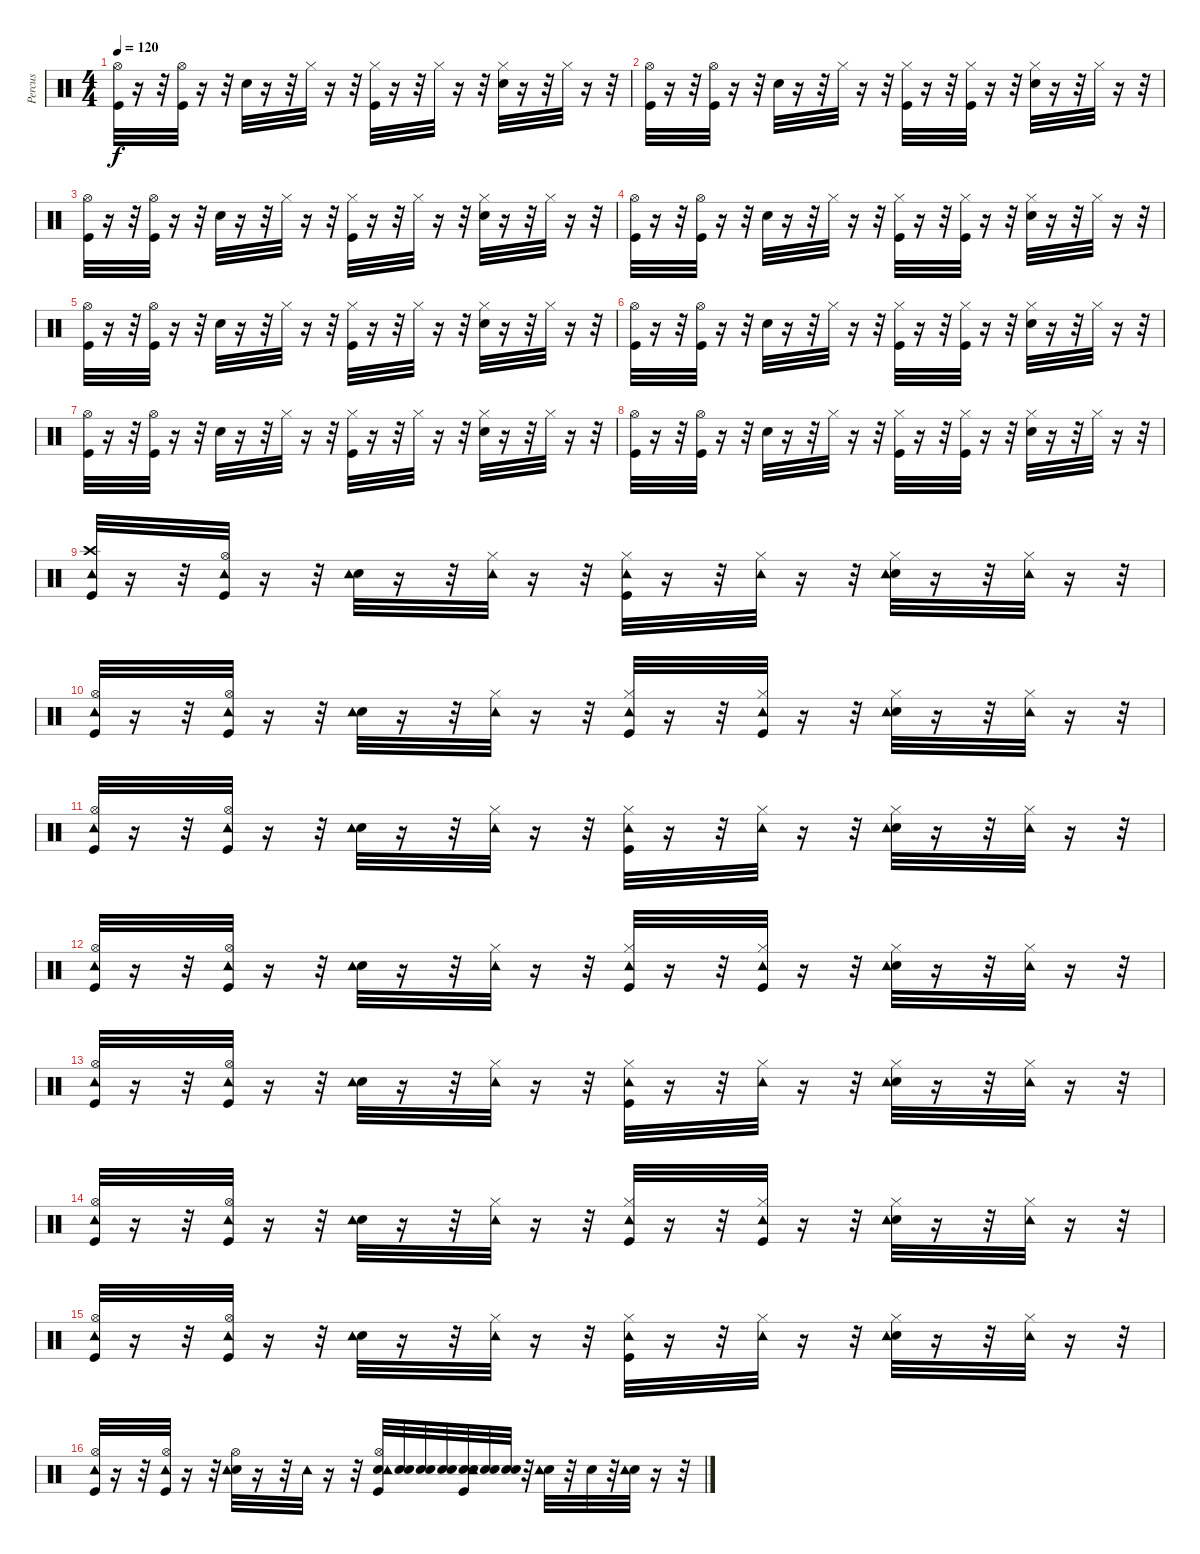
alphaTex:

\track ("Percus" "Percus") {instrument percussion}
\staff {score}
\articulation defaults
\ts (4 4)
\tempo 120
\clef neutral
\ks c
("Kick (hit)" "Hi-Hat (open)").32{dy f} r.16 r.32 ("Kick (hit)" "Hi-Hat (open)").32 r.16 r.32 "Electric Snare (hit)".32 r.16 r.32 "Hi-Hat (closed)".32 r.16 r.32 ("Kick (hit)" "Hi-Hat (closed)").32 r.16 r.32 "Hi-Hat (closed)".32 r.16 r.32 ("Electric Snare (hit)" "Hi-Hat (closed)").32 r.16 r.32 "Hi-Hat (closed)".32 r.16 r.32 |
("Kick (hit)" "Hi-Hat (open)").32 r.16 r.32 ("Kick (hit)" "Hi-Hat (open)").32 r.16 r.32 "Electric Snare (hit)".32 r.16 r.32 "Hi-Hat (closed)".32 r.16 r.32 ("Kick (hit)" "Hi-Hat (closed)").32 r.16 r.32 ("Kick (hit)" "Hi-Hat (closed)").32 r.16 r.32 ("Electric Snare (hit)" "Hi-Hat (closed)").32 r.16 r.32 "Hi-Hat (closed)".32 r.16 r.32 |
("Kick (hit)" "Hi-Hat (open)").32 r.16 r.32 ("Kick (hit)" "Hi-Hat (open)").32 r.16 r.32 "Electric Snare (hit)".32 r.16 r.32 "Hi-Hat (closed)".32 r.16 r.32 ("Kick (hit)" "Hi-Hat (closed)").32 r.16 r.32 "Hi-Hat (closed)".32 r.16 r.32 ("Electric Snare (hit)" "Hi-Hat (closed)").32 r.16 r.32 "Hi-Hat (closed)".32 r.16 r.32 |
("Kick (hit)" "Hi-Hat (open)").32 r.16 r.32 ("Kick (hit)" "Hi-Hat (open)").32 r.16 r.32 "Electric Snare (hit)".32 r.16 r.32 "Hi-Hat (closed)".32 r.16 r.32 ("Kick (hit)" "Hi-Hat (closed)").32 r.16 r.32 ("Kick (hit)" "Hi-Hat (closed)").32 r.16 r.32 ("Electric Snare (hit)" "Hi-Hat (closed)").32 r.16 r.32 "Hi-Hat (closed)".32 r.16 r.32 |
("Kick (hit)" "Hi-Hat (open)").32 r.16 r.32 ("Kick (hit)" "Hi-Hat (open)").32 r.16 r.32 "Electric Snare (hit)".32 r.16 r.32 "Hi-Hat (closed)".32 r.16 r.32 ("Kick (hit)" "Hi-Hat (closed)").32 r.16 r.32 "Hi-Hat (closed)".32 r.16 r.32 ("Electric Snare (hit)" "Hi-Hat (closed)").32 r.16 r.32 "Hi-Hat (closed)".32 r.16 r.32 |
("Kick (hit)" "Hi-Hat (open)").32 r.16 r.32 ("Kick (hit)" "Hi-Hat (open)").32 r.16 r.32 "Electric Snare (hit)".32 r.16 r.32 "Hi-Hat (closed)".32 r.16 r.32 ("Kick (hit)" "Hi-Hat (closed)").32 r.16 r.32 ("Kick (hit)" "Hi-Hat (closed)").32 r.16 r.32 ("Electric Snare (hit)" "Hi-Hat (closed)").32 r.16 r.32 "Hi-Hat (closed)".32 r.16 r.32 |
("Kick (hit)" "Hi-Hat (open)").32 r.16 r.32 ("Kick (hit)" "Hi-Hat (open)").32 r.16 r.32 "Electric Snare (hit)".32 r.16 r.32 "Hi-Hat (closed)".32 r.16 r.32 ("Kick (hit)" "Hi-Hat (closed)").32 r.16 r.32 "Hi-Hat (closed)".32 r.16 r.32 ("Electric Snare (hit)" "Hi-Hat (closed)").32 r.16 r.32 "Hi-Hat (closed)".32 r.16 r.32 |
("Kick (hit)" "Hi-Hat (open)").32 r.16 r.32 ("Kick (hit)" "Hi-Hat (open)").32 r.16 r.32 "Electric Snare (hit)".32 r.16 r.32 "Hi-Hat (closed)".32 r.16 r.32 ("Kick (hit)" "Hi-Hat (closed)").32 r.16 r.32 ("Kick (hit)" "Hi-Hat (closed)").32 r.16 r.32 ("Electric Snare (hit)" "Hi-Hat (closed)").32 r.16 r.32 "Hi-Hat (closed)".32 r.16 r.32 |
("Kick (hit)" "Crash high (hit)" "Tambourine (hit)").32 r.16 r.32 ("Kick (hit)" "Hi-Hat (open)" "Tambourine (hit)").32 r.16 r.32 ("Electric Snare (hit)" "Tambourine (hit)").32 r.16 r.32 ("Hi-Hat (closed)" "Tambourine (hit)").32 r.16 r.32 ("Kick (hit)" "Hi-Hat (closed)" "Tambourine (hit)").32 r.16 r.32 ("Hi-Hat (closed)" "Tambourine (hit)").32 r.16 r.32 ("Electric Snare (hit)" "Hi-Hat (closed)" "Tambourine (hit)").32 r.16 r.32 ("Hi-Hat (closed)" "Tambourine (hit)").32 r.16 r.32 |
("Kick (hit)" "Hi-Hat (open)" "Tambourine (hit)").32 r.16 r.32 ("Kick (hit)" "Hi-Hat (open)" "Tambourine (hit)").32 r.16 r.32 ("Electric Snare (hit)" "Tambourine (hit)").32 r.16 r.32 ("Hi-Hat (closed)" "Tambourine (hit)").32 r.16 r.32 ("Kick (hit)" "Hi-Hat (closed)" "Tambourine (hit)").32 r.16 r.32 ("Kick (hit)" "Hi-Hat (closed)" "Tambourine (hit)").32 r.16 r.32 ("Electric Snare (hit)" "Hi-Hat (closed)" "Tambourine (hit)").32 r.16 r.32 ("Hi-Hat (closed)" "Tambourine (hit)").32 r.16 r.32 |
("Kick (hit)" "Hi-Hat (open)" "Tambourine (hit)").32 r.16 r.32 ("Kick (hit)" "Hi-Hat (open)" "Tambourine (hit)").32 r.16 r.32 ("Electric Snare (hit)" "Tambourine (hit)").32 r.16 r.32 ("Hi-Hat (closed)" "Tambourine (hit)").32 r.16 r.32 ("Kick (hit)" "Hi-Hat (closed)" "Tambourine (hit)").32 r.16 r.32 ("Hi-Hat (closed)" "Tambourine (hit)").32 r.16 r.32 ("Electric Snare (hit)" "Hi-Hat (closed)" "Tambourine (hit)").32 r.16 r.32 ("Hi-Hat (closed)" "Tambourine (hit)").32 r.16 r.32 |
("Kick (hit)" "Hi-Hat (open)" "Tambourine (hit)").32 r.16 r.32 ("Kick (hit)" "Hi-Hat (open)" "Tambourine (hit)").32 r.16 r.32 ("Electric Snare (hit)" "Tambourine (hit)").32 r.16 r.32 ("Hi-Hat (closed)" "Tambourine (hit)").32 r.16 r.32 ("Kick (hit)" "Hi-Hat (closed)" "Tambourine (hit)").32 r.16 r.32 ("Kick (hit)" "Hi-Hat (closed)" "Tambourine (hit)").32 r.16 r.32 ("Electric Snare (hit)" "Hi-Hat (closed)" "Tambourine (hit)").32 r.16 r.32 ("Hi-Hat (closed)" "Tambourine (hit)").32 r.16 r.32 |
("Kick (hit)" "Hi-Hat (open)" "Tambourine (hit)").32 r.16 r.32 ("Kick (hit)" "Hi-Hat (open)" "Tambourine (hit)").32 r.16 r.32 ("Electric Snare (hit)" "Tambourine (hit)").32 r.16 r.32 ("Hi-Hat (closed)" "Tambourine (hit)").32 r.16 r.32 ("Kick (hit)" "Hi-Hat (closed)" "Tambourine (hit)").32 r.16 r.32 ("Hi-Hat (closed)" "Tambourine (hit)").32 r.16 r.32 ("Electric Snare (hit)" "Hi-Hat (closed)" "Tambourine (hit)").32 r.16 r.32 ("Hi-Hat (closed)" "Tambourine (hit)").32 r.16 r.32 |
("Kick (hit)" "Hi-Hat (open)" "Tambourine (hit)").32 r.16 r.32 ("Kick (hit)" "Hi-Hat (open)" "Tambourine (hit)").32 r.16 r.32 ("Electric Snare (hit)" "Tambourine (hit)").32 r.16 r.32 ("Hi-Hat (closed)" "Tambourine (hit)").32 r.16 r.32 ("Kick (hit)" "Hi-Hat (closed)" "Tambourine (hit)").32 r.16 r.32 ("Kick (hit)" "Hi-Hat (closed)" "Tambourine (hit)").32 r.16 r.32 ("Electric Snare (hit)" "Hi-Hat (closed)" "Tambourine (hit)").32 r.16 r.32 ("Hi-Hat (closed)" "Tambourine (hit)").32 r.16 r.32 |
("Kick (hit)" "Hi-Hat (open)" "Tambourine (hit)").32 r.16 r.32 ("Kick (hit)" "Hi-Hat (open)" "Tambourine (hit)").32 r.16 r.32 ("Electric Snare (hit)" "Tambourine (hit)").32 r.16 r.32 ("Hi-Hat (closed)" "Tambourine (hit)").32 r.16 r.32 ("Kick (hit)" "Hi-Hat (closed)" "Tambourine (hit)").32 r.16 r.32 ("Hi-Hat (closed)" "Tambourine (hit)").32 r.16 r.32 ("Electric Snare (hit)" "Hi-Hat (closed)" "Tambourine (hit)").32 r.16 r.32 ("Hi-Hat (closed)" "Tambourine (hit)").32 r.16 r.32 |
("Kick (hit)" "Hi-Hat (open)" "Tambourine (hit)").32 r.16 r.32 ("Kick (hit)" "Hi-Hat (open)" "Tambourine (hit)").32 r.16 r.32 ("Electric Snare (hit)" "Hi-Hat (open)" "Tambourine (hit)").32 r.16 r.32 "Tambourine (hit)".32 r.16 r.32 ("Kick (hit)" "Electric Snare (hit)" "Hi-Hat (open)" "Tambourine (hit)").32 ("Snare (hit)" "Electric Snare (hit)").32 ("Snare (hit)" "Electric Snare (hit)").32 ("Snare (hit)" "Electric Snare (hit)").32 ("Snare (hit)" "Kick (hit)" "Electric Snare (hit)" "Tambourine (hit)").32 ("Snare (hit)" "Electric Snare (hit)").32 ("Snare (hit)" "Electric Snare (hit)").32 r.32 ("Electric Snare (hit)" "Tambourine (hit)").32 r.32 "Electric Snare (hit)".32 r.32 ("Electric Snare (hit)" "Tambourine (hit)").32 r.16 r.32
